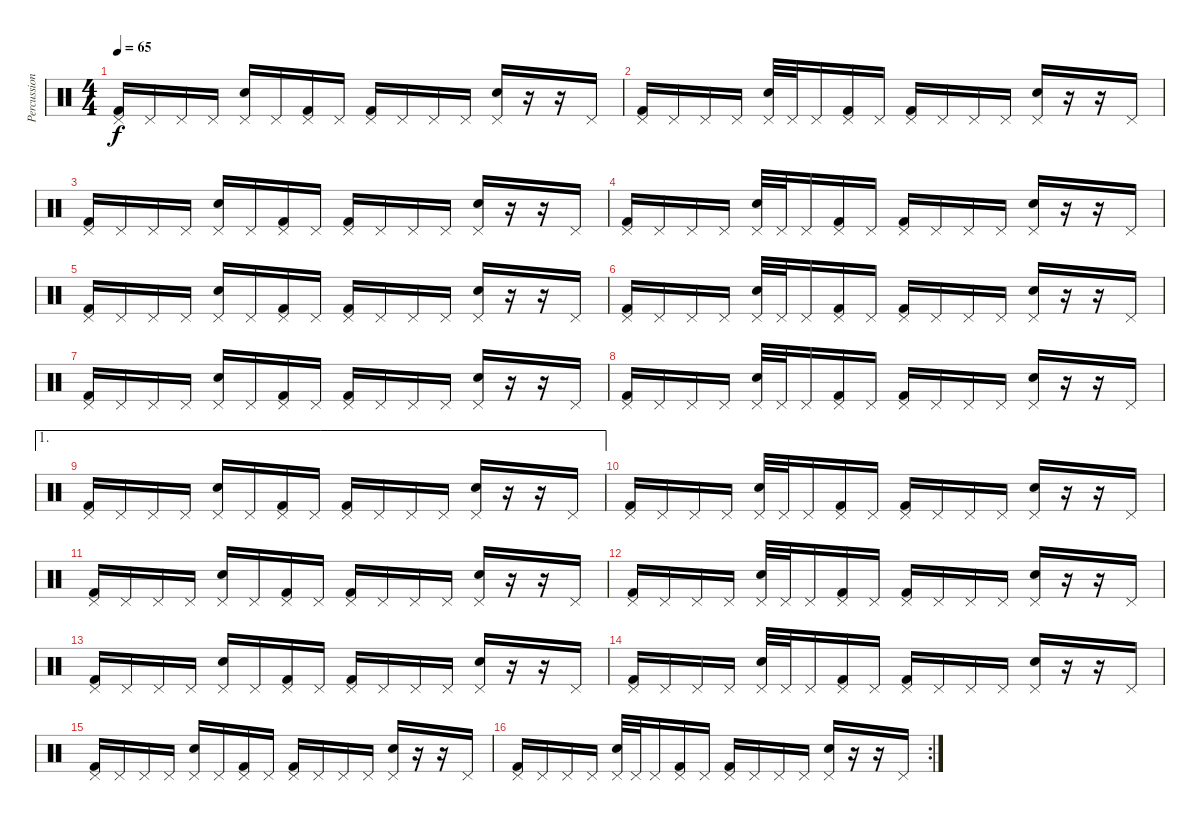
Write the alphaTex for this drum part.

\track ("Percussion" "Percussion") {instrument percussion}
\staff {score}
\articulation defaults
\ts (4 4)
\tempo 65
\clef neutral
\ks c
("Pedal Hi-Hat (hit)" "Kick (hit) 2").16{dy f} "Pedal Hi-Hat (hit)".16 "Pedal Hi-Hat (hit)".16 "Pedal Hi-Hat (hit)".16 ("Pedal Hi-Hat (hit)" "Snare (hit) 2").16 "Pedal Hi-Hat (hit)".16 ("Pedal Hi-Hat (hit)" "Kick (hit) 2").16 "Pedal Hi-Hat (hit)".16 ("Pedal Hi-Hat (hit)" "Kick (hit) 2").16 "Pedal Hi-Hat (hit)".16 "Pedal Hi-Hat (hit)".16 "Pedal Hi-Hat (hit)".16 ("Pedal Hi-Hat (hit)" "Snare (hit) 2").16 r.16 r.16 "Pedal Hi-Hat (hit)".16 |
("Pedal Hi-Hat (hit)" "Kick (hit) 2").16 "Pedal Hi-Hat (hit)".16 "Pedal Hi-Hat (hit)".16 "Pedal Hi-Hat (hit)".16 ("Pedal Hi-Hat (hit)" "Snare (hit) 2").32 "Pedal Hi-Hat (hit)".32 "Pedal Hi-Hat (hit)".16 ("Pedal Hi-Hat (hit)" "Kick (hit) 2").16 "Pedal Hi-Hat (hit)".16 ("Pedal Hi-Hat (hit)" "Kick (hit) 2").16 "Pedal Hi-Hat (hit)".16 "Pedal Hi-Hat (hit)".16 "Pedal Hi-Hat (hit)".16 ("Pedal Hi-Hat (hit)" "Snare (hit) 2").16 r.16 r.16 "Pedal Hi-Hat (hit)".16 |
("Pedal Hi-Hat (hit)" "Kick (hit) 2").16 "Pedal Hi-Hat (hit)".16 "Pedal Hi-Hat (hit)".16 "Pedal Hi-Hat (hit)".16 ("Pedal Hi-Hat (hit)" "Snare (hit) 2").16 "Pedal Hi-Hat (hit)".16 ("Pedal Hi-Hat (hit)" "Kick (hit) 2").16 "Pedal Hi-Hat (hit)".16 ("Pedal Hi-Hat (hit)" "Kick (hit) 2").16 "Pedal Hi-Hat (hit)".16 "Pedal Hi-Hat (hit)".16 "Pedal Hi-Hat (hit)".16 ("Pedal Hi-Hat (hit)" "Snare (hit) 2").16 r.16 r.16 "Pedal Hi-Hat (hit)".16 |
("Pedal Hi-Hat (hit)" "Kick (hit) 2").16 "Pedal Hi-Hat (hit)".16 "Pedal Hi-Hat (hit)".16 "Pedal Hi-Hat (hit)".16 ("Pedal Hi-Hat (hit)" "Snare (hit) 2").32 "Pedal Hi-Hat (hit)".32 "Pedal Hi-Hat (hit)".16 ("Pedal Hi-Hat (hit)" "Kick (hit) 2").16 "Pedal Hi-Hat (hit)".16 ("Pedal Hi-Hat (hit)" "Kick (hit) 2").16 "Pedal Hi-Hat (hit)".16 "Pedal Hi-Hat (hit)".16 "Pedal Hi-Hat (hit)".16 ("Pedal Hi-Hat (hit)" "Snare (hit) 2").16 r.16 r.16 "Pedal Hi-Hat (hit)".16 |
("Pedal Hi-Hat (hit)" "Kick (hit) 2").16 "Pedal Hi-Hat (hit)".16 "Pedal Hi-Hat (hit)".16 "Pedal Hi-Hat (hit)".16 ("Pedal Hi-Hat (hit)" "Snare (hit) 2").16 "Pedal Hi-Hat (hit)".16 ("Pedal Hi-Hat (hit)" "Kick (hit) 2").16 "Pedal Hi-Hat (hit)".16 ("Pedal Hi-Hat (hit)" "Kick (hit) 2").16 "Pedal Hi-Hat (hit)".16 "Pedal Hi-Hat (hit)".16 "Pedal Hi-Hat (hit)".16 ("Pedal Hi-Hat (hit)" "Snare (hit) 2").16 r.16 r.16 "Pedal Hi-Hat (hit)".16 |
("Pedal Hi-Hat (hit)" "Kick (hit) 2").16 "Pedal Hi-Hat (hit)".16 "Pedal Hi-Hat (hit)".16 "Pedal Hi-Hat (hit)".16 ("Pedal Hi-Hat (hit)" "Snare (hit) 2").32 "Pedal Hi-Hat (hit)".32 "Pedal Hi-Hat (hit)".16 ("Pedal Hi-Hat (hit)" "Kick (hit) 2").16 "Pedal Hi-Hat (hit)".16 ("Pedal Hi-Hat (hit)" "Kick (hit) 2").16 "Pedal Hi-Hat (hit)".16 "Pedal Hi-Hat (hit)".16 "Pedal Hi-Hat (hit)".16 ("Pedal Hi-Hat (hit)" "Snare (hit) 2").16 r.16 r.16 "Pedal Hi-Hat (hit)".16 |
("Pedal Hi-Hat (hit)" "Kick (hit) 2").16 "Pedal Hi-Hat (hit)".16 "Pedal Hi-Hat (hit)".16 "Pedal Hi-Hat (hit)".16 ("Pedal Hi-Hat (hit)" "Snare (hit) 2").16 "Pedal Hi-Hat (hit)".16 ("Pedal Hi-Hat (hit)" "Kick (hit) 2").16 "Pedal Hi-Hat (hit)".16 ("Pedal Hi-Hat (hit)" "Kick (hit) 2").16 "Pedal Hi-Hat (hit)".16 "Pedal Hi-Hat (hit)".16 "Pedal Hi-Hat (hit)".16 ("Pedal Hi-Hat (hit)" "Snare (hit) 2").16 r.16 r.16 "Pedal Hi-Hat (hit)".16 |
("Pedal Hi-Hat (hit)" "Kick (hit) 2").16 "Pedal Hi-Hat (hit)".16 "Pedal Hi-Hat (hit)".16 "Pedal Hi-Hat (hit)".16 ("Pedal Hi-Hat (hit)" "Snare (hit) 2").32 "Pedal Hi-Hat (hit)".32 "Pedal Hi-Hat (hit)".16 ("Pedal Hi-Hat (hit)" "Kick (hit) 2").16 "Pedal Hi-Hat (hit)".16 ("Pedal Hi-Hat (hit)" "Kick (hit) 2").16 "Pedal Hi-Hat (hit)".16 "Pedal Hi-Hat (hit)".16 "Pedal Hi-Hat (hit)".16 ("Pedal Hi-Hat (hit)" "Snare (hit) 2").16 r.16 r.16 "Pedal Hi-Hat (hit)".16 |
\ae 1
("Pedal Hi-Hat (hit)" "Kick (hit) 2").16 "Pedal Hi-Hat (hit)".16 "Pedal Hi-Hat (hit)".16 "Pedal Hi-Hat (hit)".16 ("Pedal Hi-Hat (hit)" "Snare (hit) 2").16 "Pedal Hi-Hat (hit)".16 ("Pedal Hi-Hat (hit)" "Kick (hit) 2").16 "Pedal Hi-Hat (hit)".16 ("Pedal Hi-Hat (hit)" "Kick (hit) 2").16 "Pedal Hi-Hat (hit)".16 "Pedal Hi-Hat (hit)".16 "Pedal Hi-Hat (hit)".16 ("Pedal Hi-Hat (hit)" "Snare (hit) 2").16 r.16 r.16 "Pedal Hi-Hat (hit)".16 |
("Pedal Hi-Hat (hit)" "Kick (hit) 2").16 "Pedal Hi-Hat (hit)".16 "Pedal Hi-Hat (hit)".16 "Pedal Hi-Hat (hit)".16 ("Pedal Hi-Hat (hit)" "Snare (hit) 2").32 "Pedal Hi-Hat (hit)".32 "Pedal Hi-Hat (hit)".16 ("Pedal Hi-Hat (hit)" "Kick (hit) 2").16 "Pedal Hi-Hat (hit)".16 ("Pedal Hi-Hat (hit)" "Kick (hit) 2").16 "Pedal Hi-Hat (hit)".16 "Pedal Hi-Hat (hit)".16 "Pedal Hi-Hat (hit)".16 ("Pedal Hi-Hat (hit)" "Snare (hit) 2").16 r.16 r.16 "Pedal Hi-Hat (hit)".16 |
("Pedal Hi-Hat (hit)" "Kick (hit) 2").16 "Pedal Hi-Hat (hit)".16 "Pedal Hi-Hat (hit)".16 "Pedal Hi-Hat (hit)".16 ("Pedal Hi-Hat (hit)" "Snare (hit) 2").16 "Pedal Hi-Hat (hit)".16 ("Pedal Hi-Hat (hit)" "Kick (hit) 2").16 "Pedal Hi-Hat (hit)".16 ("Pedal Hi-Hat (hit)" "Kick (hit) 2").16 "Pedal Hi-Hat (hit)".16 "Pedal Hi-Hat (hit)".16 "Pedal Hi-Hat (hit)".16 ("Pedal Hi-Hat (hit)" "Snare (hit) 2").16 r.16 r.16 "Pedal Hi-Hat (hit)".16 |
("Pedal Hi-Hat (hit)" "Kick (hit) 2").16 "Pedal Hi-Hat (hit)".16 "Pedal Hi-Hat (hit)".16 "Pedal Hi-Hat (hit)".16 ("Pedal Hi-Hat (hit)" "Snare (hit) 2").32 "Pedal Hi-Hat (hit)".32 "Pedal Hi-Hat (hit)".16 ("Pedal Hi-Hat (hit)" "Kick (hit) 2").16 "Pedal Hi-Hat (hit)".16 ("Pedal Hi-Hat (hit)" "Kick (hit) 2").16 "Pedal Hi-Hat (hit)".16 "Pedal Hi-Hat (hit)".16 "Pedal Hi-Hat (hit)".16 ("Pedal Hi-Hat (hit)" "Snare (hit) 2").16 r.16 r.16 "Pedal Hi-Hat (hit)".16 |
("Pedal Hi-Hat (hit)" "Kick (hit) 2").16 "Pedal Hi-Hat (hit)".16 "Pedal Hi-Hat (hit)".16 "Pedal Hi-Hat (hit)".16 ("Pedal Hi-Hat (hit)" "Snare (hit) 2").16 "Pedal Hi-Hat (hit)".16 ("Pedal Hi-Hat (hit)" "Kick (hit) 2").16 "Pedal Hi-Hat (hit)".16 ("Pedal Hi-Hat (hit)" "Kick (hit) 2").16 "Pedal Hi-Hat (hit)".16 "Pedal Hi-Hat (hit)".16 "Pedal Hi-Hat (hit)".16 ("Pedal Hi-Hat (hit)" "Snare (hit) 2").16 r.16 r.16 "Pedal Hi-Hat (hit)".16 |
("Pedal Hi-Hat (hit)" "Kick (hit) 2").16 "Pedal Hi-Hat (hit)".16 "Pedal Hi-Hat (hit)".16 "Pedal Hi-Hat (hit)".16 ("Pedal Hi-Hat (hit)" "Snare (hit) 2").32 "Pedal Hi-Hat (hit)".32 "Pedal Hi-Hat (hit)".16 ("Pedal Hi-Hat (hit)" "Kick (hit) 2").16 "Pedal Hi-Hat (hit)".16 ("Pedal Hi-Hat (hit)" "Kick (hit) 2").16 "Pedal Hi-Hat (hit)".16 "Pedal Hi-Hat (hit)".16 "Pedal Hi-Hat (hit)".16 ("Pedal Hi-Hat (hit)" "Snare (hit) 2").16 r.16 r.16 "Pedal Hi-Hat (hit)".16 |
("Pedal Hi-Hat (hit)" "Kick (hit) 2").16 "Pedal Hi-Hat (hit)".16 "Pedal Hi-Hat (hit)".16 "Pedal Hi-Hat (hit)".16 ("Pedal Hi-Hat (hit)" "Snare (hit) 2").16 "Pedal Hi-Hat (hit)".16 ("Pedal Hi-Hat (hit)" "Kick (hit) 2").16 "Pedal Hi-Hat (hit)".16 ("Pedal Hi-Hat (hit)" "Kick (hit) 2").16 "Pedal Hi-Hat (hit)".16 "Pedal Hi-Hat (hit)".16 "Pedal Hi-Hat (hit)".16 ("Pedal Hi-Hat (hit)" "Snare (hit) 2").16 r.16 r.16 "Pedal Hi-Hat (hit)".16 |
\rc 2
("Pedal Hi-Hat (hit)" "Kick (hit) 2").16 "Pedal Hi-Hat (hit)".16 "Pedal Hi-Hat (hit)".16 "Pedal Hi-Hat (hit)".16 ("Pedal Hi-Hat (hit)" "Snare (hit) 2").32 "Pedal Hi-Hat (hit)".32 "Pedal Hi-Hat (hit)".16 ("Pedal Hi-Hat (hit)" "Kick (hit) 2").16 "Pedal Hi-Hat (hit)".16 ("Pedal Hi-Hat (hit)" "Kick (hit) 2").16 "Pedal Hi-Hat (hit)".16 "Pedal Hi-Hat (hit)".16 "Pedal Hi-Hat (hit)".16 ("Pedal Hi-Hat (hit)" "Snare (hit) 2").16 r.16 r.16 "Pedal Hi-Hat (hit)".16
